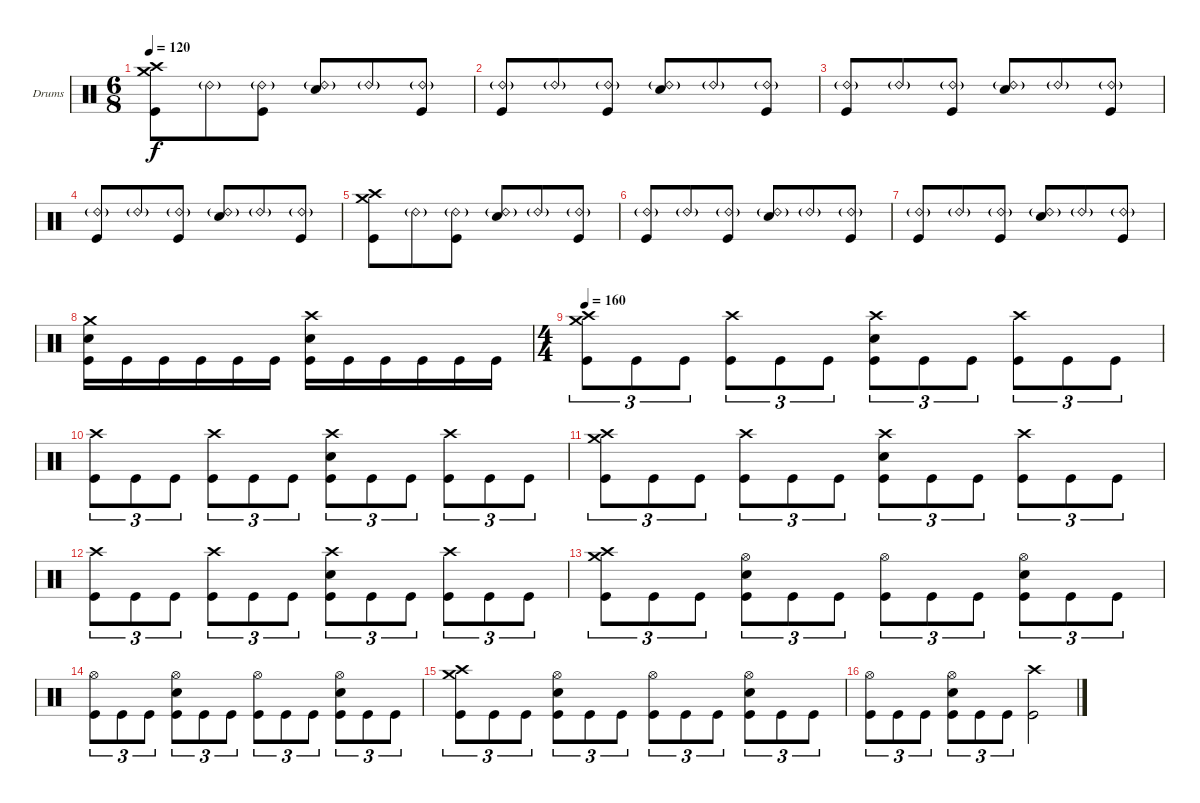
\defaultSystemsLayout 4
\bracketExtendMode groupsimilarinstruments
\firstSystemTrackNameOrientation horizontal
\otherSystemsTrackNameOrientation horizontal
\track ("Moe Carlson" "Drums") {instrument percussion}
\staff {score}
\articulation defaults
\ts (6 8)
\tempo 120
\clef neutral
\ks c
("Crash medium (hit)" "Crash high (hit)" "Kick (hit)").8{dy f} "Ride (bell) 2"{g}.8 ("Ride (bell) 2"{g} "Kick (hit)").8 ("Ride (bell) 2"{g} "Snare (hit) 2").8 "Ride (bell) 2"{g}.8 ("Ride (bell) 2"{g} "Kick (hit)").8 |
("Kick (hit)" "Ride (bell) 2"{g}).8 "Ride (bell) 2"{g}.8 ("Ride (bell) 2"{g} "Kick (hit)").8 ("Ride (bell) 2"{g} "Snare (hit) 2").8 "Ride (bell) 2"{g}.8 ("Ride (bell) 2"{g} "Kick (hit)").8 |
("Kick (hit)" "Ride (bell) 2"{g}).8 "Ride (bell) 2"{g}.8 ("Ride (bell) 2"{g} "Kick (hit)").8 ("Ride (bell) 2"{g} "Snare (hit) 2").8 "Ride (bell) 2"{g}.8 ("Ride (bell) 2"{g} "Kick (hit)").8 |
("Kick (hit)" "Ride (bell) 2"{g}).8 "Ride (bell) 2"{g}.8 ("Ride (bell) 2"{g} "Kick (hit)").8 ("Ride (bell) 2"{g} "Snare (hit) 2").8 "Ride (bell) 2"{g}.8 ("Ride (bell) 2"{g} "Kick (hit)").8 |
("Crash medium (hit)" "Crash high (hit)" "Kick (hit)").8 "Ride (bell) 2"{g}.8 ("Ride (bell) 2"{g} "Kick (hit)").8 ("Ride (bell) 2"{g} "Snare (hit) 2").8 "Ride (bell) 2"{g}.8 ("Ride (bell) 2"{g} "Kick (hit)").8 |
("Kick (hit)" "Ride (bell) 2"{g}).8 "Ride (bell) 2"{g}.8 ("Ride (bell) 2"{g} "Kick (hit)").8 ("Ride (bell) 2"{g} "Snare (hit) 2").8 "Ride (bell) 2"{g}.8 ("Ride (bell) 2"{g} "Kick (hit)").8 |
("Kick (hit)" "Ride (bell) 2"{g}).8 "Ride (bell) 2"{g}.8 ("Ride (bell) 2"{g} "Kick (hit)").8 ("Ride (bell) 2"{g} "Snare (hit) 2").8 "Ride (bell) 2"{g}.8 ("Ride (bell) 2"{g} "Kick (hit)").8 |
("Kick (hit)" "Snare (hit) 2" "Crash medium (hit)").16 "Kick (hit)".16 "Kick (hit)".16 "Kick (hit)".16 "Kick (hit)".16 "Kick (hit)".16 ("Kick (hit)" "Snare (hit) 2" "Crash high (hit)").16 "Kick (hit)".16 "Kick (hit)".16 "Kick (hit)".16 "Kick (hit)".16 "Kick (hit)".16 |
\ts (4 4)
\tempo (160 0.00625)
("Crash medium (hit)" "Crash high (hit)" "Kick (hit)").8{tu (3 2)} "Kick (hit)".8{tu (3 2)} "Kick (hit)".8{tu (3 2)} ("Kick (hit)" "Crash high (hit)").8{tu (3 2)} "Kick (hit)".8{tu (3 2)} "Kick (hit)".8{tu (3 2)} ("Kick (hit)" "Snare (hit) 2" "Crash high (hit)").8{tu (3 2)} "Kick (hit)".8{tu (3 2)} "Kick (hit)".8{tu (3 2)} ("Kick (hit)" "Crash high (hit)").8{tu (3 2)} "Kick (hit)".8{tu (3 2)} "Kick (hit)".8{tu (3 2)} |
("Crash high (hit)" "Kick (hit)").8{tu (3 2)} "Kick (hit)".8{tu (3 2)} "Kick (hit)".8{tu (3 2)} ("Kick (hit)" "Crash high (hit)").8{tu (3 2)} "Kick (hit)".8{tu (3 2)} "Kick (hit)".8{tu (3 2)} ("Kick (hit)" "Snare (hit) 2" "Crash high (hit)").8{tu (3 2)} "Kick (hit)".8{tu (3 2)} "Kick (hit)".8{tu (3 2)} ("Kick (hit)" "Crash high (hit)").8{tu (3 2)} "Kick (hit)".8{tu (3 2)} "Kick (hit)".8{tu (3 2)} |
("Crash medium (hit)" "Crash high (hit)" "Kick (hit)").8{tu (3 2)} "Kick (hit)".8{tu (3 2)} "Kick (hit)".8{tu (3 2)} ("Kick (hit)" "Crash high (hit)").8{tu (3 2)} "Kick (hit)".8{tu (3 2)} "Kick (hit)".8{tu (3 2)} ("Kick (hit)" "Snare (hit) 2" "Crash high (hit)").8{tu (3 2)} "Kick (hit)".8{tu (3 2)} "Kick (hit)".8{tu (3 2)} ("Kick (hit)" "Crash high (hit)").8{tu (3 2)} "Kick (hit)".8{tu (3 2)} "Kick (hit)".8{tu (3 2)} |
("Crash high (hit)" "Kick (hit)").8{tu (3 2)} "Kick (hit)".8{tu (3 2)} "Kick (hit)".8{tu (3 2)} ("Kick (hit)" "Crash high (hit)").8{tu (3 2)} "Kick (hit)".8{tu (3 2)} "Kick (hit)".8{tu (3 2)} ("Kick (hit)" "Snare (hit) 2" "Crash high (hit)").8{tu (3 2)} "Kick (hit)".8{tu (3 2)} "Kick (hit)".8{tu (3 2)} ("Kick (hit)" "Crash high (hit)").8{tu (3 2)} "Kick (hit)".8{tu (3 2)} "Kick (hit)".8{tu (3 2)} |
("Crash medium (hit)" "Crash high (hit)" "Kick (hit)").8{tu (3 2)} "Kick (hit)".8{tu (3 2)} "Kick (hit)".8{tu (3 2)} ("Kick (hit)" "Snare (hit) 2" "Hi-Hat (open)").8{tu (3 2)} "Kick (hit)".8{tu (3 2)} "Kick (hit)".8{tu (3 2)} ("Kick (hit)" "Hi-Hat (open)").8{tu (3 2)} "Kick (hit)".8{tu (3 2)} "Kick (hit)".8{tu (3 2)} ("Kick (hit)" "Snare (hit) 2" "Hi-Hat (open)").8{tu (3 2)} "Kick (hit)".8{tu (3 2)} "Kick (hit)".8{tu (3 2)} |
("Kick (hit)" "Hi-Hat (open)").8{tu (3 2)} "Kick (hit)".8{tu (3 2)} "Kick (hit)".8{tu (3 2)} ("Kick (hit)" "Hi-Hat (open)" "Snare (hit) 2").8{tu (3 2)} "Kick (hit)".8{tu (3 2)} "Kick (hit)".8{tu (3 2)} ("Kick (hit)" "Hi-Hat (open)").8{tu (3 2)} "Kick (hit)".8{tu (3 2)} "Kick (hit)".8{tu (3 2)} ("Kick (hit)" "Hi-Hat (open)" "Snare (hit) 2").8{tu (3 2)} "Kick (hit)".8{tu (3 2)} "Kick (hit)".8{tu (3 2)} |
("Crash medium (hit)" "Crash high (hit)" "Kick (hit)").8{tu (3 2)} "Kick (hit)".8{tu (3 2)} "Kick (hit)".8{tu (3 2)} ("Kick (hit)" "Snare (hit) 2" "Hi-Hat (open)").8{tu (3 2)} "Kick (hit)".8{tu (3 2)} "Kick (hit)".8{tu (3 2)} ("Kick (hit)" "Hi-Hat (open)").8{tu (3 2)} "Kick (hit)".8{tu (3 2)} "Kick (hit)".8{tu (3 2)} ("Kick (hit)" "Snare (hit) 2" "Hi-Hat (open)").8{tu (3 2)} "Kick (hit)".8{tu (3 2)} "Kick (hit)".8{tu (3 2)} |
("Kick (hit)" "Hi-Hat (open)").8{tu (3 2)} "Kick (hit)".8{tu (3 2)} "Kick (hit)".8{tu (3 2)} ("Kick (hit)" "Hi-Hat (open)" "Snare (hit) 2").8{tu (3 2)} "Kick (hit)".8{tu (3 2)} "Kick (hit)".8{tu (3 2)} ("Kick (hit)" "Crash high (hit)").2
